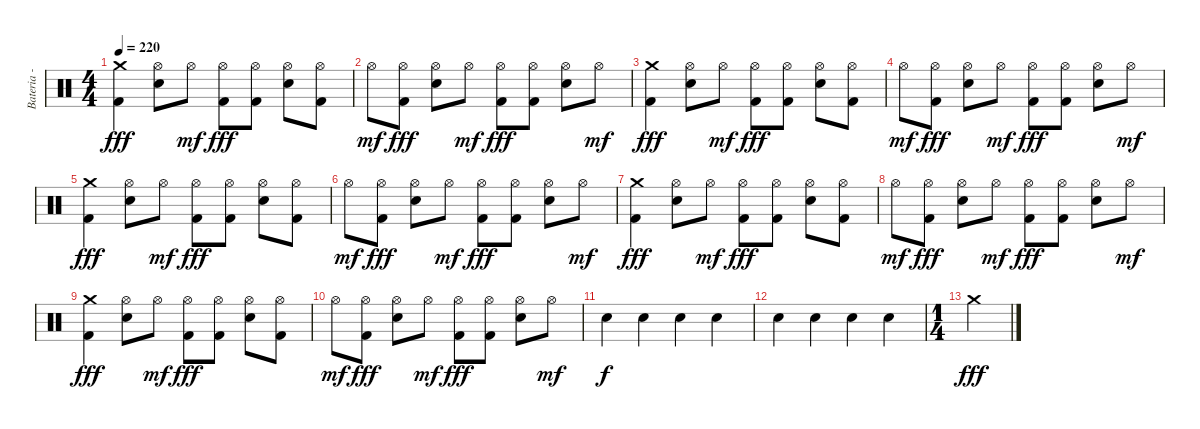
\track ("Bateria - Larzon" "Bateria - ") {instrument percussion}
\staff {score}
\articulation defaults
\ts (4 4)
\tempo 220
\clef neutral
\ks c
("Crash medium (hit)" "Kick (hit) 2").4{dy fff} ("Hi-Hat (open)" "Electric Snare (hit)").8 "Hi-Hat (open)".8{dy mf} ("Hi-Hat (open)" "Kick (hit) 2").8{dy fff} ("Hi-Hat (open)" "Kick (hit) 2").8 ("Hi-Hat (open)" "Electric Snare (hit)").8 ("Hi-Hat (open)" "Kick (hit) 2").8 |
"Hi-Hat (open)".8{dy mf} ("Hi-Hat (open)" "Kick (hit) 2").8{dy fff} ("Hi-Hat (open)" "Electric Snare (hit)").8 "Hi-Hat (open)".8{dy mf} ("Hi-Hat (open)" "Kick (hit) 2").8{dy fff} ("Hi-Hat (open)" "Kick (hit) 2").8 ("Hi-Hat (open)" "Electric Snare (hit)").8 "Hi-Hat (open)".8{dy mf} |
("Crash medium (hit)" "Kick (hit) 2").4{dy fff} ("Hi-Hat (open)" "Electric Snare (hit)").8 "Hi-Hat (open)".8{dy mf} ("Hi-Hat (open)" "Kick (hit) 2").8{dy fff} ("Hi-Hat (open)" "Kick (hit) 2").8 ("Hi-Hat (open)" "Electric Snare (hit)").8 ("Hi-Hat (open)" "Kick (hit) 2").8 |
"Hi-Hat (open)".8{dy mf} ("Hi-Hat (open)" "Kick (hit) 2").8{dy fff} ("Hi-Hat (open)" "Electric Snare (hit)").8 "Hi-Hat (open)".8{dy mf} ("Hi-Hat (open)" "Kick (hit) 2").8{dy fff} ("Hi-Hat (open)" "Kick (hit) 2").8 ("Hi-Hat (open)" "Electric Snare (hit)").8 "Hi-Hat (open)".8{dy mf} |
("Crash medium (hit)" "Kick (hit) 2").4{dy fff} ("Hi-Hat (open)" "Electric Snare (hit)").8 "Hi-Hat (open)".8{dy mf} ("Hi-Hat (open)" "Kick (hit) 2").8{dy fff} ("Hi-Hat (open)" "Kick (hit) 2").8 ("Hi-Hat (open)" "Electric Snare (hit)").8 ("Hi-Hat (open)" "Kick (hit) 2").8 |
"Hi-Hat (open)".8{dy mf} ("Hi-Hat (open)" "Kick (hit) 2").8{dy fff} ("Hi-Hat (open)" "Electric Snare (hit)").8 "Hi-Hat (open)".8{dy mf} ("Hi-Hat (open)" "Kick (hit) 2").8{dy fff} ("Hi-Hat (open)" "Kick (hit) 2").8 ("Hi-Hat (open)" "Electric Snare (hit)").8 "Hi-Hat (open)".8{dy mf} |
("Crash medium (hit)" "Kick (hit) 2").4{dy fff} ("Hi-Hat (open)" "Electric Snare (hit)").8 "Hi-Hat (open)".8{dy mf} ("Hi-Hat (open)" "Kick (hit) 2").8{dy fff} ("Hi-Hat (open)" "Kick (hit) 2").8 ("Hi-Hat (open)" "Electric Snare (hit)").8 ("Hi-Hat (open)" "Kick (hit) 2").8 |
"Hi-Hat (open)".8{dy mf} ("Hi-Hat (open)" "Kick (hit) 2").8{dy fff} ("Hi-Hat (open)" "Electric Snare (hit)").8 "Hi-Hat (open)".8{dy mf} ("Hi-Hat (open)" "Kick (hit) 2").8{dy fff} ("Hi-Hat (open)" "Kick (hit) 2").8 ("Hi-Hat (open)" "Electric Snare (hit)").8 "Hi-Hat (open)".8{dy mf} |
("Crash medium (hit)" "Kick (hit) 2").4{dy fff} ("Hi-Hat (open)" "Electric Snare (hit)").8 "Hi-Hat (open)".8{dy mf} ("Hi-Hat (open)" "Kick (hit) 2").8{dy fff} ("Hi-Hat (open)" "Kick (hit) 2").8 ("Hi-Hat (open)" "Electric Snare (hit)").8 ("Hi-Hat (open)" "Kick (hit) 2").8 |
"Hi-Hat (open)".8{dy mf} ("Hi-Hat (open)" "Kick (hit) 2").8{dy fff} ("Hi-Hat (open)" "Electric Snare (hit)").8 "Hi-Hat (open)".8{dy mf} ("Hi-Hat (open)" "Kick (hit) 2").8{dy fff} ("Hi-Hat (open)" "Kick (hit) 2").8 ("Hi-Hat (open)" "Electric Snare (hit)").8 "Hi-Hat (open)".8{dy mf} |
"Electric Snare (hit)".4{dy f} "Electric Snare (hit)".4 "Electric Snare (hit)".4 "Electric Snare (hit)".4 |
"Electric Snare (hit)".4 "Electric Snare (hit)".4 "Electric Snare (hit)".4 "Electric Snare (hit)".4 |
\ts (1 4)
"Crash medium (hit)".4{dy fff}
